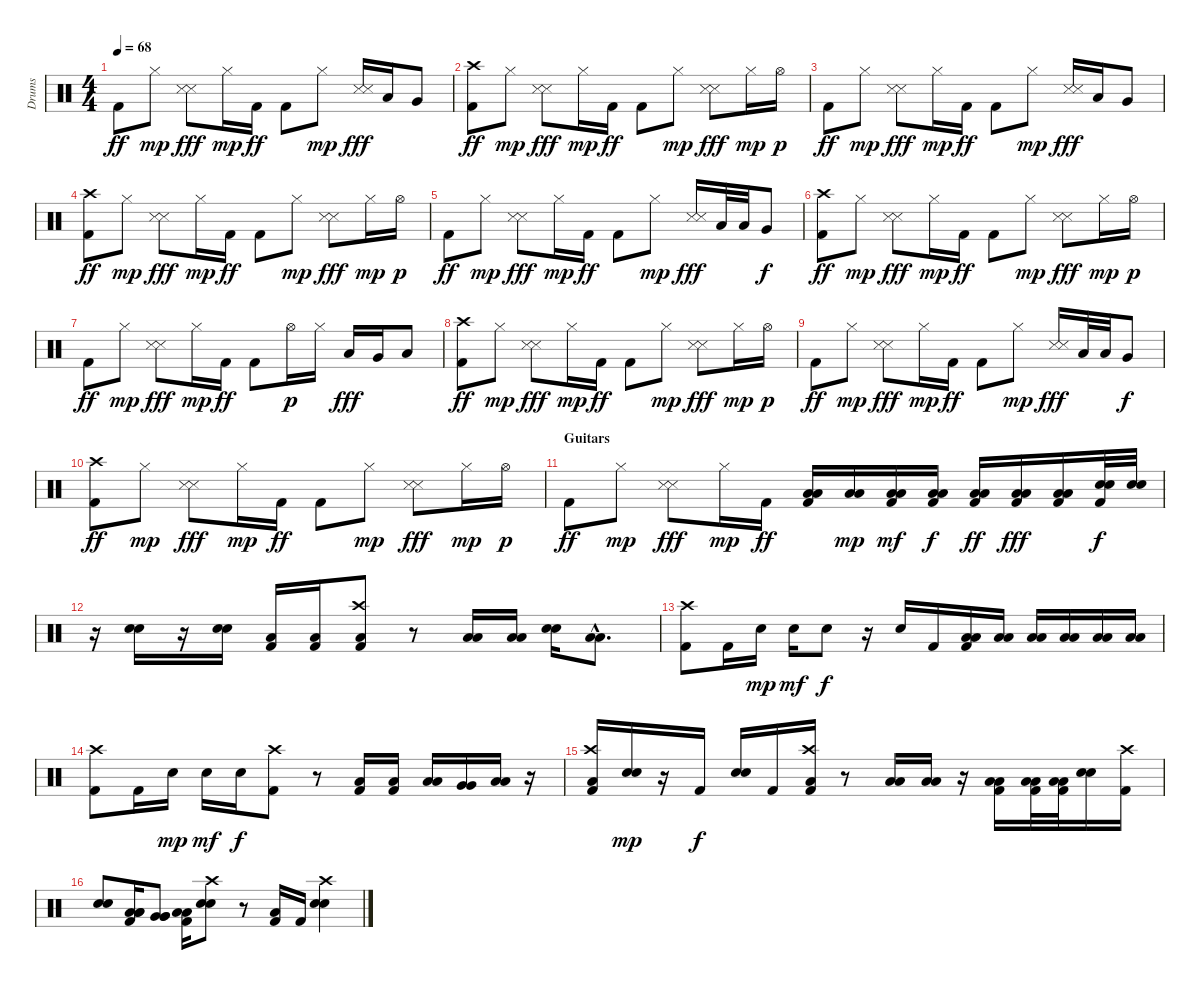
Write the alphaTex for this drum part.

\track ("Drums" "Drums") {instrument percussion}
\staff {score}
\articulation defaults
\ts (4 4)
\tempo 68
\clef neutral
\ks c "Kick (hit) 2".8{dy ff} "Hi-Hat (closed)".8{dy mp}
("Snare (side stick) 3" "Snare (side stick) 3").8{dy fff} "Hi-Hat (closed)".16{dy mp} "Kick (hit) 2".16{dy ff} "Kick (hit) 2".8 "Hi-Hat (closed)".8{dy mp} ("Snare (side stick) 3" "Snare (side stick) 3").16{dy fff} "Low Tom (hit)".16 "Very Low Tom (hit)".8 |
("Crash high (hit)" "Kick (hit) 2").8{dy ff} "Hi-Hat (closed)".8{dy mp} ("Snare (side stick) 3" "Snare (side stick) 3").8{dy fff} "Hi-Hat (closed)".16{dy mp} "Kick (hit) 2".16{dy ff} "Kick (hit) 2".8 "Hi-Hat (closed)".8{dy mp} ("Snare (side stick) 3" "Snare (side stick) 3").8{dy fff} "Hi-Hat (closed)".16{dy mp} "Hi-Hat (open)".16{dy p} |
"Kick (hit) 2".8{dy ff} "Hi-Hat (closed)".8{dy mp} ("Snare (side stick) 3" "Snare (side stick) 3").8{dy fff} "Hi-Hat (closed)".16{dy mp} "Kick (hit) 2".16{dy ff} "Kick (hit) 2".8 "Hi-Hat (closed)".8{dy mp} ("Snare (side stick) 3" "Snare (side stick) 3").16{dy fff} "Low Tom (hit)".16 "Very Low Tom (hit)".8 |
("Crash high (hit)" "Kick (hit) 2").8{dy ff} "Hi-Hat (closed)".8{dy mp} ("Snare (side stick) 3" "Snare (side stick) 3").8{dy fff} "Hi-Hat (closed)".16{dy mp} "Kick (hit) 2".16{dy ff} "Kick (hit) 2".8 "Hi-Hat (closed)".8{dy mp} ("Snare (side stick) 3" "Snare (side stick) 3").8{dy fff} "Hi-Hat (closed)".16{dy mp} "Hi-Hat (open)".16{dy p} |
"Kick (hit) 2".8{dy ff} "Hi-Hat (closed)".8{dy mp} ("Snare (side stick) 3" "Snare (side stick) 3").8{dy fff} "Hi-Hat (closed)".16{dy mp} "Kick (hit) 2".16{dy ff} "Kick (hit) 2".8 "Hi-Hat (closed)".8{dy mp} ("Snare (side stick) 3" "Snare (side stick) 3").16{dy fff} "Low Tom (hit)".32 "Low Tom (hit)".32 "Very Low Tom (hit)".8{dy f} |
("Crash high (hit)" "Kick (hit) 2").8{dy ff} "Hi-Hat (closed)".8{dy mp} ("Snare (side stick) 3" "Snare (side stick) 3").8{dy fff} "Hi-Hat (closed)".16{dy mp} "Kick (hit) 2".16{dy ff} "Kick (hit) 2".8 "Hi-Hat (closed)".8{dy mp} ("Snare (side stick) 3" "Snare (side stick) 3").8{dy fff} "Hi-Hat (closed)".16{dy mp} "Hi-Hat (open)".16{dy p} |
"Kick (hit) 2".8{dy ff} "Hi-Hat (closed)".8{dy mp} ("Snare (side stick) 3" "Snare (side stick) 3").8{dy fff} "Hi-Hat (closed)".16{dy mp} "Kick (hit) 2".16{dy ff} "Kick (hit) 2".8 "Hi-Hat (open)".16{dy p} "Hi-Hat (closed)".16 "Low Tom (hit)".16{dy fff} "Very Low Tom (hit)".16 "Low Floor Tom (hit)".8 |
("Crash high (hit)" "Kick (hit) 2").8{dy ff} "Hi-Hat (closed)".8{dy mp} ("Snare (side stick) 3" "Snare (side stick) 3").8{dy fff} "Hi-Hat (closed)".16{dy mp} "Kick (hit) 2".16{dy ff} "Kick (hit) 2".8 "Hi-Hat (closed)".8{dy mp} ("Snare (side stick) 3" "Snare (side stick) 3").8{dy fff} "Hi-Hat (closed)".16{dy mp} "Hi-Hat (open)".16{dy p} |
"Kick (hit) 2".8{dy ff} "Hi-Hat (closed)".8{dy mp} ("Snare (side stick) 3" "Snare (side stick) 3").8{dy fff} "Hi-Hat (closed)".16{dy mp} "Kick (hit) 2".16{dy ff} "Kick (hit) 2".8 "Hi-Hat (closed)".8{dy mp} ("Snare (side stick) 3" "Snare (side stick) 3").16{dy fff} "Low Tom (hit)".32 "Low Tom (hit)".32 "Very Low Tom (hit)".8{dy f} |
("Crash high (hit)" "Kick (hit) 2").8{dy ff} "Hi-Hat (closed)".8{dy mp} ("Snare (side stick) 3" "Snare (side stick) 3").8{dy fff} "Hi-Hat (closed)".16{dy mp} "Kick (hit) 2".16{dy ff} "Kick (hit) 2".8 "Hi-Hat (closed)".8{dy mp} ("Snare (side stick) 3" "Snare (side stick) 3").8{dy fff} "Hi-Hat (closed)".16{dy mp} "Hi-Hat (open)".16{dy p} |
\section ("" "Guitars")
"Kick (hit) 2".8{dy ff} "Hi-Hat (closed)".8{dy mp} ("Snare (side stick) 3" "Snare (side stick) 3").8{dy fff} "Hi-Hat (closed)".16{dy mp} "Kick (hit) 2".16{dy ff} ("Low Floor Tom (hit)" "Low Floor Tom (hit)" "Kick (hit) 2").16 ("Low Floor Tom (hit)" "Low Floor Tom (hit)").16{dy mp} ("Low Floor Tom (hit)" "Low Floor Tom (hit)" "Kick (hit) 2").16{dy mf} ("Low Floor Tom (hit)" "Low Floor Tom (hit)" "Kick (hit) 2").16{dy f} ("Low Floor Tom (hit)" "Low Floor Tom (hit)" "Kick (hit) 2").16{dy ff} ("Low Floor Tom (hit)" "Low Floor Tom (hit)" "Kick (hit) 2").16{dy fff} ("Low Floor Tom (hit)" "Low Floor Tom (hit)" "Kick (hit) 2").16 ("Electric Snare (hit)" "Electric Snare (hit)" "Kick (hit) 2").32{dy f} ("Electric Snare (hit)" "Electric Snare (hit)").32 |
r.16 ("Electric Snare (hit)" "Electric Snare (hit)").16{bd 120} r.16 ("Electric Snare (hit)" "Electric Snare (hit)").16{bd 120} ("Low Floor Tom (hit)" "Kick (hit) 2").16 ("Low Floor Tom (hit)" "Kick (hit) 2").16 ("Crash high (hit)" "Low Floor Tom (hit)" "Kick (hit) 2").8 r.8 ("Low Floor Tom (hit)" "Low Floor Tom (hit)").16{bd 120} ("Low Floor Tom (hit)" "Low Floor Tom (hit)").16 ("Electric Snare (hit)" "Electric Snare (hit)").16{bd 120} ("Low Floor Tom (hit)"{hac} "Low Floor Tom (hit)"{hac}).8{d} |
("Crash high (hit)" "Kick (hit) 2").8 "Kick (hit) 2".16 "Electric Snare (hit)".16{dy mp} "Electric Snare (hit)".16{dy mf} "Electric Snare (hit)".8{dy f} r.16 "Electric Snare (hit)".16 "Kick (hit) 2".16 ("Low Floor Tom (hit)" "Low Floor Tom (hit)" "Kick (hit) 2").16 ("Low Floor Tom (hit)" "Low Floor Tom (hit)").16 ("Low Floor Tom (hit)" "Low Floor Tom (hit)").16 ("Low Floor Tom (hit)" "Low Floor Tom (hit)").16 ("Low Floor Tom (hit)" "Low Floor Tom (hit)").16 ("Low Floor Tom (hit)" "Low Floor Tom (hit)").16 |
("Crash high (hit)" "Kick (hit) 2").8 "Kick (hit) 2".16 "Electric Snare (hit)".16{dy mp} "Electric Snare (hit)".16{dy mf} "Electric Snare (hit)".16{dy f} ("Crash high (hit)" "Kick (hit) 2").8 r.8 ("Low Floor Tom (hit)" "Kick (hit) 2").16 ("Low Floor Tom (hit)" "Kick (hit) 2").16 ("Low Tom (hit)" "Low Tom (hit)").16 ("Very Low Tom (hit)" "Very Low Tom (hit)").16 ("Low Floor Tom (hit)" "Low Floor Tom (hit)").16 r.16 |
("Crash high (hit)" "Low Floor Tom (hit)" "Kick (hit) 2").16 ("Electric Snare (hit)" "Electric Snare (hit)").16{dy mp} r.16 "Kick (hit) 2".16{dy f} ("Electric Snare (hit)" "Electric Snare (hit)").16 "Kick (hit) 2".16 ("Crash high (hit)" "Low Floor Tom (hit)" "Kick (hit) 2").16 r.8 ("Low Tom (hit)" "Low Tom (hit)").16 ("Low Floor Tom (hit)" "Low Floor Tom (hit)").16 r.16 ("Low Floor Tom (hit)" "Low Floor Tom (hit)" "Kick (hit) 2").16 ("Low Floor Tom (hit)" "Low Floor Tom (hit)" "Kick (hit) 2").32 ("Low Floor Tom (hit)" "Low Floor Tom (hit)" "Kick (hit) 2").32 ("Electric Snare (hit)" "Electric Snare (hit)").16 ("Crash high (hit)" "Kick (hit) 2").16 |
("Electric Snare (hit)" "Electric Snare (hit)").8{bd 60} ("Low Tom (hit)" "Low Tom (hit)" "Low Tom (hit)" "Kick (hit) 2").16 ("Very Low Tom (hit)" "Very Low Tom (hit)" "Very Low Tom (hit)").8 ("Low Floor Tom (hit)" "Low Floor Tom (hit)" "Kick (hit) 2").16 ("Crash high (hit)" "Electric Snare (hit)" "Electric Snare (hit)").8{bd 120} r.8 ("Low Floor Tom (hit)" "Kick (hit) 2").16 "Kick (hit) 2".16 ("Crash high (hit)" "Electric Snare (hit)" "Electric Snare (hit)").4
